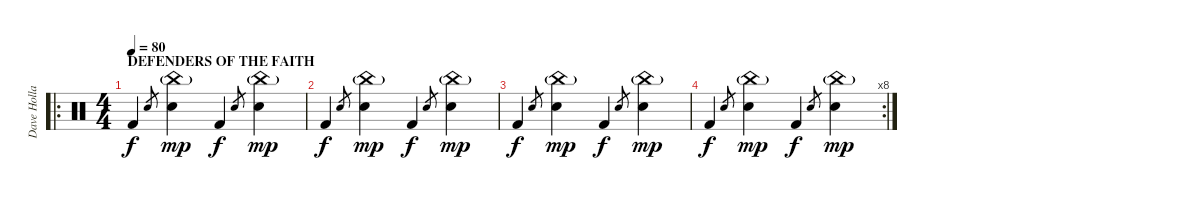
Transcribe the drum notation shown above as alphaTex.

\track ("Dave Holland" "Dave Holla") {instrument percussion}
\staff {score}
\articulation defaults
\ro
\ts (4 4)
\section ("" "DEFENDERS OF THE FAITH")
\tempo 80
\clef neutral
\ks c "Kick (hit) 2".4{dy f} "Snare (hit) 2".8{gr}
("Snare (hit) 2" "China (hit)"{g}).4{dy mp} "Kick (hit) 2".4{dy f} "Snare (hit) 2".8{gr} ("Snare (hit) 2" "China (hit)"{g}).4{dy mp} |
"Kick (hit) 2".4{dy f} "Snare (hit) 2".8{gr} ("Snare (hit) 2" "China (hit)"{g}).4{dy mp} "Kick (hit) 2".4{dy f} "Snare (hit) 2".8{gr} ("Snare (hit) 2" "China (hit)"{g}).4{dy mp} |
"Kick (hit) 2".4{dy f} "Snare (hit) 2".8{gr} ("Snare (hit) 2" "China (hit)"{g}).4{dy mp} "Kick (hit) 2".4{dy f} "Snare (hit) 2".8{gr} ("Snare (hit) 2" "China (hit)"{g}).4{dy mp} |
\rc 8 "Kick (hit) 2".4{dy f} "Snare (hit) 2".8{gr}
("Snare (hit) 2" "China (hit)"{g}).4{dy mp} "Kick (hit) 2".4{dy f} "Snare (hit) 2".8{gr} ("Snare (hit) 2" "China (hit)"{g}).4{dy mp}
